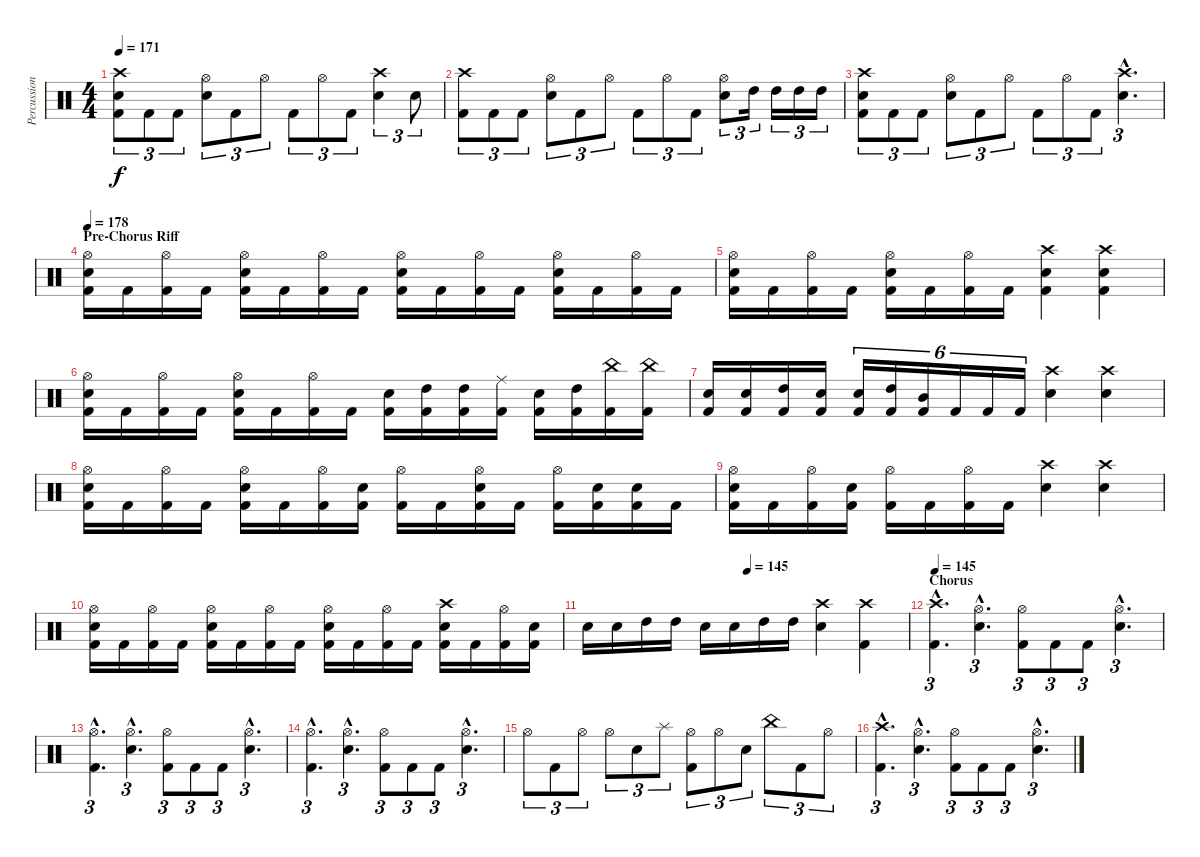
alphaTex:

\track ("Percussion" "Percussion") {instrument percussion}
\staff {score}
\articulation defaults
\ts (4 4)
\tempo 171
\clef neutral
\ks c
("Crash high (hit)" "Electric Snare (hit)" "Kick (hit) 2").8{tu (3 2) dy f} "Kick (hit) 2".8{tu (3 2)} "Kick (hit) 2".8{tu (3 2)} ("Hi-Hat (open)" "Electric Snare (hit)").8{tu (3 2)} "Kick (hit) 2".8{tu (3 2)} "Hi-Hat (open)".8{tu (3 2)} "Kick (hit) 2".8{tu (3 2)} "Hi-Hat (open)".8{tu (3 2)} "Kick (hit) 2".8{tu (3 2)} ("Crash high (hit)" "Electric Snare (hit)").4{tu (3 2)} "Electric Snare (hit)".8{tu (3 2)} |
("Crash high (hit)" "Kick (hit) 2").8{tu (3 2)} "Kick (hit) 2".8{tu (3 2)} "Kick (hit) 2".8{tu (3 2)} ("Hi-Hat (open)" "Electric Snare (hit)").8{tu (3 2)} "Kick (hit) 2".8{tu (3 2)} "Hi-Hat (open)".8{tu (3 2)} "Kick (hit) 2".8{tu (3 2)} "Hi-Hat (open)".8{tu (3 2)} "Kick (hit) 2".8{tu (3 2)} ("Hi-Hat (open)" "Electric Snare (hit)").8{tu (3 2)} "High Tom (hit)".16{tu (3 2)} "High Tom (hit)".16{tu (3 2)} "High Tom (hit)".16{tu (3 2)} "High Tom (hit)".16{tu (3 2)} |
("Crash high (hit)" "Electric Snare (hit)" "Kick (hit) 2").8{tu (3 2)} "Kick (hit) 2".8{tu (3 2)} "Kick (hit) 2".8{tu (3 2)} ("Hi-Hat (open)" "Electric Snare (hit)").8{tu (3 2)} "Kick (hit) 2".8{tu (3 2)} "Hi-Hat (open)".8{tu (3 2)} "Kick (hit) 2".8{tu (3 2)} "Hi-Hat (open)".8{tu (3 2)} "Kick (hit) 2".8{tu (3 2)} ("Crash high (hit)"{hac} "Electric Snare (hit)"{hac}).4{d tu (3 2)} |
\section ("" "Pre-Chorus Riff")
\tempo 178
("Hi-Hat (open)" "Electric Snare (hit)" "Kick (hit) 2").16 "Kick (hit) 2".16 ("Hi-Hat (open)" "Kick (hit) 2").16 "Kick (hit) 2".16 ("Hi-Hat (open)" "Electric Snare (hit)" "Kick (hit) 2").16 "Kick (hit) 2".16 ("Hi-Hat (open)" "Kick (hit) 2").16 "Kick (hit) 2".16 ("Hi-Hat (open)" "Electric Snare (hit)" "Kick (hit) 2").16 "Kick (hit) 2".16 ("Hi-Hat (open)" "Kick (hit) 2").16 "Kick (hit) 2".16 ("Hi-Hat (open)" "Electric Snare (hit)" "Kick (hit) 2").16 "Kick (hit) 2".16 ("Hi-Hat (open)" "Kick (hit) 2").16 "Kick (hit) 2".16 |
("Hi-Hat (open)" "Electric Snare (hit)" "Kick (hit) 2").16 "Kick (hit) 2".16 ("Hi-Hat (open)" "Kick (hit) 2").16 "Kick (hit) 2".16 ("Hi-Hat (open)" "Electric Snare (hit)" "Kick (hit) 2").16 "Kick (hit) 2".16 ("Hi-Hat (open)" "Kick (hit) 2").16 "Kick (hit) 2".16 ("Crash high (hit)" "Electric Snare (hit)" "Kick (hit) 2").4 ("Crash high (hit)" "Electric Snare (hit)" "Kick (hit) 2").4 |
("Hi-Hat (open)" "Electric Snare (hit)" "Kick (hit) 2").16 "Kick (hit) 2".16 ("Hi-Hat (open)" "Kick (hit) 2").16 "Kick (hit) 2".16 ("Hi-Hat (open)" "Electric Snare (hit)" "Kick (hit) 2").16 "Kick (hit) 2".16 ("Hi-Hat (open)" "Kick (hit) 2").16 "Kick (hit) 2".16 ("Electric Snare (hit)" "Kick (hit) 2").16 ("High Tom (hit)" "Kick (hit) 2").16 ("High Tom (hit)" "Kick (hit) 2").16 ("Ride (middle)" "Kick (hit) 2").16 ("Electric Snare (hit)" "Kick (hit) 2").16 ("High Tom (hit)" "Kick (hit) 2").16 ("China (hit)" "Kick (hit) 2").16 ("China (hit)" "Kick (hit) 2").16 |
("Electric Snare (hit)" "Kick (hit) 2").16 ("Electric Snare (hit)" "Kick (hit) 2").16 ("High Tom (hit)" "Kick (hit) 2").16 ("Electric Snare (hit)" "Kick (hit) 2").16 ("Electric Snare (hit)" "Kick (hit) 2").16{tu (6 4)} ("High Tom (hit)" "Kick (hit) 2").16{tu (6 4)} ("Mid Tom (hit)" "Kick (hit) 2").16{tu (6 4)} "Kick (hit) 2".16{tu (6 4)} "Kick (hit) 2".16{tu (6 4)} "Kick (hit) 2".16{tu (6 4)} ("Crash high (hit)" "Electric Snare (hit)").4 ("Crash high (hit)" "Electric Snare (hit)").4 |
("Hi-Hat (open)" "Electric Snare (hit)" "Kick (hit) 2").16 "Kick (hit) 2".16 ("Hi-Hat (open)" "Kick (hit) 2").16 "Kick (hit) 2".16 ("Hi-Hat (open)" "Electric Snare (hit)" "Kick (hit) 2").16 "Kick (hit) 2".16 ("Hi-Hat (open)" "Kick (hit) 2").16 ("Electric Snare (hit)" "Kick (hit) 2").16 ("Hi-Hat (open)" "Kick (hit) 2").16 "Kick (hit) 2".16 ("Hi-Hat (open)" "Electric Snare (hit)" "Kick (hit) 2").16 "Kick (hit) 2".16 ("Hi-Hat (open)" "Kick (hit) 2").16 ("Electric Snare (hit)" "Kick (hit) 2").16 ("Electric Snare (hit)" "Kick (hit) 2").16 "Kick (hit) 2".16 |
("Hi-Hat (open)" "Electric Snare (hit)" "Kick (hit) 2").16 "Kick (hit) 2".16 ("Hi-Hat (open)" "Kick (hit) 2").16 ("Electric Snare (hit)" "Kick (hit) 2").16 ("Hi-Hat (open)" "Kick (hit) 2").16 "Kick (hit) 2".16 ("Hi-Hat (open)" "Kick (hit) 2").16 "Kick (hit) 2".16 ("Crash high (hit)" "Electric Snare (hit)").4 ("Crash high (hit)" "Electric Snare (hit)").4 |
("Hi-Hat (open)" "Electric Snare (hit)" "Kick (hit) 2").16 "Kick (hit) 2".16 ("Hi-Hat (open)" "Kick (hit) 2").16 "Kick (hit) 2".16 ("Hi-Hat (open)" "Electric Snare (hit)" "Kick (hit) 2").16 "Kick (hit) 2".16 ("Hi-Hat (open)" "Kick (hit) 2").16 "Kick (hit) 2".16 ("Hi-Hat (open)" "Electric Snare (hit)" "Kick (hit) 2").16 "Kick (hit) 2".16 ("Hi-Hat (open)" "Kick (hit) 2").16 "Kick (hit) 2".16 ("Crash high (hit)" "Electric Snare (hit)" "Kick (hit) 2").16 "Kick (hit) 2".16 ("Hi-Hat (open)" "Kick (hit) 2").16 ("Electric Snare (hit)" "Kick (hit) 2").16 |
\tempo (145 0.5)
"Electric Snare (hit)".16 "Electric Snare (hit)".16 "High Tom (hit)".16 "High Tom (hit)".16 "Electric Snare (hit)".16 "Electric Snare (hit)".16 "High Tom (hit)".16 "High Tom (hit)".16 ("Crash high (hit)" "Electric Snare (hit)").4 ("Crash high (hit)" "Kick (hit) 2").4 |
\section ("" "Chorus")
\tempo 145
("Crash high (hit)"{hac} "Kick (hit) 2"{hac}).4{d tu (3 2)} ("Hi-Hat (open)"{hac} "Electric Snare (hit)"{hac}).4{d tu (3 2)} ("Hi-Hat (open)" "Kick (hit) 2").8{tu (3 2)} "Kick (hit) 2".8{tu (3 2)} "Kick (hit) 2".8{tu (3 2)} ("Hi-Hat (open)"{hac} "Electric Snare (hit)"{hac}).4{d tu (3 2)} |
("Hi-Hat (open)"{hac} "Kick (hit) 2"{hac}).4{d tu (3 2)} ("Hi-Hat (open)"{hac} "Electric Snare (hit)"{hac}).4{d tu (3 2)} ("Hi-Hat (open)" "Kick (hit) 2").8{tu (3 2)} "Kick (hit) 2".8{tu (3 2)} "Kick (hit) 2".8{tu (3 2)} ("Hi-Hat (open)"{hac} "Electric Snare (hit)"{hac}).4{d tu (3 2)} |
("Hi-Hat (open)"{hac} "Kick (hit) 2"{hac}).4{d tu (3 2)} ("Hi-Hat (open)"{hac} "Electric Snare (hit)"{hac}).4{d tu (3 2)} ("Hi-Hat (open)" "Kick (hit) 2").8{tu (3 2)} "Kick (hit) 2".8{tu (3 2)} "Kick (hit) 2".8{tu (3 2)} ("Hi-Hat (open)"{hac} "Electric Snare (hit)"{hac}).4{d tu (3 2)} |
"Hi-Hat (open)".8{tu (3 2)} "Kick (hit) 2".8{tu (3 2)} "Hi-Hat (open)".8{tu (3 2)} "Hi-Hat (open)".8{tu (3 2)} "Electric Snare (hit)".8{tu (3 2)} "Splash (hit)".8{tu (3 2)} ("Hi-Hat (open)" "Kick (hit) 2").8{tu (3 2)} "Hi-Hat (open)".8{tu (3 2)} "Electric Snare (hit)".8{tu (3 2)} "China (hit)".8{tu (3 2)} "Kick (hit) 2".8{tu (3 2)} "Hi-Hat (open)".8{tu (3 2)} |
("Crash high (hit)"{hac} "Kick (hit) 2"{hac}).4{d tu (3 2)} ("Hi-Hat (open)"{hac} "Electric Snare (hit)"{hac}).4{d tu (3 2)} ("Hi-Hat (open)" "Kick (hit) 2").8{tu (3 2)} "Kick (hit) 2".8{tu (3 2)} "Kick (hit) 2".8{tu (3 2)} ("Hi-Hat (open)"{hac} "Electric Snare (hit)"{hac}).4{d tu (3 2)}
